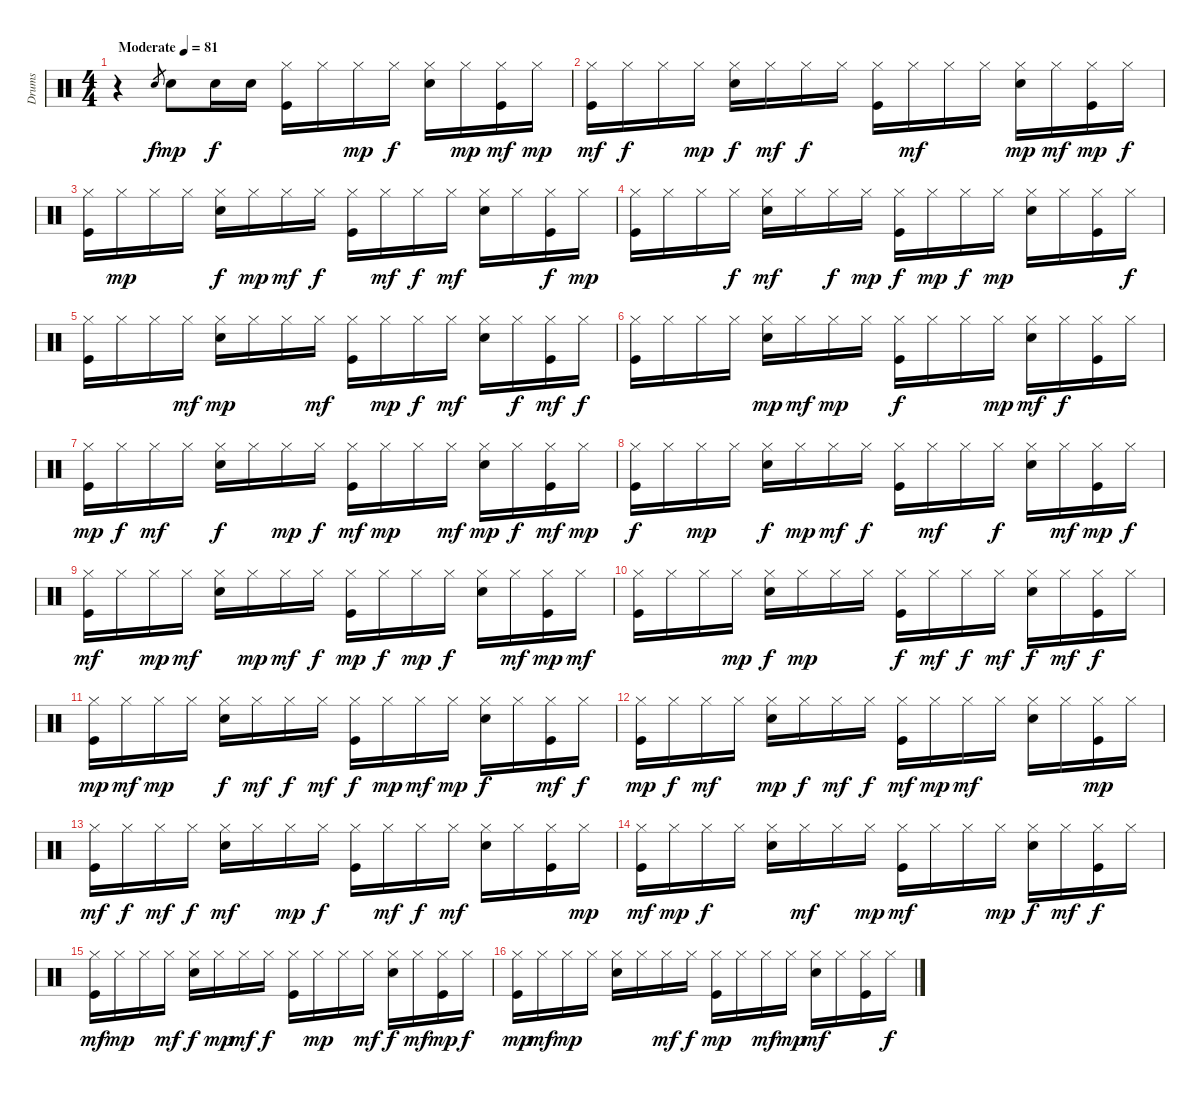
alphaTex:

\track ("Drums" "Drums") {instrument percussion}
\staff {score}
\articulation defaults
\ts (4 4)
\tempo (81 "Moderate")
\clef neutral
\ks c
r.4{dy f} "Electric Snare (hit)".8{gr} "Electric Snare (hit)".8{dy mp} "Electric Snare (hit)".16{dy f} "Electric Snare (hit)".16 ("Kick (hit)" "Hi-Hat (closed)").16 "Hi-Hat (closed)".16 "Hi-Hat (closed)".16{dy mp} "Hi-Hat (closed)".16{dy f} ("Electric Snare (hit)" "Hi-Hat (closed)").16 "Hi-Hat (closed)".16{dy mp} ("Kick (hit)" "Hi-Hat (closed)").16{dy mf} "Hi-Hat (closed)".16{dy mp} |
("Kick (hit)" "Hi-Hat (closed)").16{dy mf} "Hi-Hat (closed)".16{dy f} "Hi-Hat (closed)".16 "Hi-Hat (closed)".16{dy mp} ("Electric Snare (hit)" "Hi-Hat (closed)").16{dy f} "Hi-Hat (closed)".16{dy mf} "Hi-Hat (closed)".16{dy f} "Hi-Hat (closed)".16 ("Kick (hit)" "Hi-Hat (closed)").16 "Hi-Hat (closed)".16{dy mf} "Hi-Hat (closed)".16 "Hi-Hat (closed)".16 ("Electric Snare (hit)" "Hi-Hat (closed)").16{dy mp} "Hi-Hat (closed)".16{dy mf} ("Kick (hit)" "Hi-Hat (closed)").16{dy mp} "Hi-Hat (closed)".16{dy f} |
("Kick (hit)" "Hi-Hat (closed)").16 "Hi-Hat (closed)".16{dy mp} "Hi-Hat (closed)".16 "Hi-Hat (closed)".16 ("Electric Snare (hit)" "Hi-Hat (closed)").16{dy f} "Hi-Hat (closed)".16{dy mp} "Hi-Hat (closed)".16{dy mf} "Hi-Hat (closed)".16{dy f} ("Kick (hit)" "Hi-Hat (closed)").16 "Hi-Hat (closed)".16{dy mf} "Hi-Hat (closed)".16{dy f} "Hi-Hat (closed)".16{dy mf} ("Electric Snare (hit)" "Hi-Hat (closed)").16 "Hi-Hat (closed)".16 ("Kick (hit)" "Hi-Hat (closed)").16{dy f} "Hi-Hat (closed)".16{dy mp} |
("Kick (hit)" "Hi-Hat (closed)").16 "Hi-Hat (closed)".16 "Hi-Hat (closed)".16 "Hi-Hat (closed)".16{dy f} ("Electric Snare (hit)" "Hi-Hat (closed)").16{dy mf} "Hi-Hat (closed)".16 "Hi-Hat (closed)".16{dy f} "Hi-Hat (closed)".16{dy mp} ("Kick (hit)" "Hi-Hat (closed)").16{dy f} "Hi-Hat (closed)".16{dy mp} "Hi-Hat (closed)".16{dy f} "Hi-Hat (closed)".16{dy mp} ("Electric Snare (hit)" "Hi-Hat (closed)").16 "Hi-Hat (closed)".16 ("Kick (hit)" "Hi-Hat (closed)").16 "Hi-Hat (closed)".16{dy f} |
("Kick (hit)" "Hi-Hat (closed)").16 "Hi-Hat (closed)".16 "Hi-Hat (closed)".16 "Hi-Hat (closed)".16{dy mf} ("Electric Snare (hit)" "Hi-Hat (closed)").16{dy mp} "Hi-Hat (closed)".16 "Hi-Hat (closed)".16 "Hi-Hat (closed)".16{dy mf} ("Kick (hit)" "Hi-Hat (closed)").16 "Hi-Hat (closed)".16{dy mp} "Hi-Hat (closed)".16{dy f} "Hi-Hat (closed)".16{dy mf} ("Electric Snare (hit)" "Hi-Hat (closed)").16 "Hi-Hat (closed)".16{dy f} ("Kick (hit)" "Hi-Hat (closed)").16{dy mf} "Hi-Hat (closed)".16{dy f} |
("Kick (hit)" "Hi-Hat (closed)").16 "Hi-Hat (closed)".16 "Hi-Hat (closed)".16 "Hi-Hat (closed)".16 ("Electric Snare (hit)" "Hi-Hat (closed)").16{dy mp} "Hi-Hat (closed)".16{dy mf} "Hi-Hat (closed)".16{dy mp} "Hi-Hat (closed)".16 ("Kick (hit)" "Hi-Hat (closed)").16{dy f} "Hi-Hat (closed)".16 "Hi-Hat (closed)".16 "Hi-Hat (closed)".16{dy mp} ("Electric Snare (hit)" "Hi-Hat (closed)").16{dy mf} "Hi-Hat (closed)".16{dy f} ("Kick (hit)" "Hi-Hat (closed)").16 "Hi-Hat (closed)".16 |
("Kick (hit)" "Hi-Hat (closed)").16{dy mp} "Hi-Hat (closed)".16{dy f} "Hi-Hat (closed)".16{dy mf} "Hi-Hat (closed)".16 ("Electric Snare (hit)" "Hi-Hat (closed)").16{dy f} "Hi-Hat (closed)".16 "Hi-Hat (closed)".16{dy mp} "Hi-Hat (closed)".16{dy f} ("Kick (hit)" "Hi-Hat (closed)").16{dy mf} "Hi-Hat (closed)".16{dy mp} "Hi-Hat (closed)".16 "Hi-Hat (closed)".16{dy mf} ("Electric Snare (hit)" "Hi-Hat (closed)").16{dy mp} "Hi-Hat (closed)".16{dy f} ("Kick (hit)" "Hi-Hat (closed)").16{dy mf} "Hi-Hat (closed)".16{dy mp} |
("Kick (hit)" "Hi-Hat (closed)").16{dy f} "Hi-Hat (closed)".16 "Hi-Hat (closed)".16{dy mp} "Hi-Hat (closed)".16 ("Electric Snare (hit)" "Hi-Hat (closed)").16{dy f} "Hi-Hat (closed)".16{dy mp} "Hi-Hat (closed)".16{dy mf} "Hi-Hat (closed)".16{dy f} ("Kick (hit)" "Hi-Hat (closed)").16 "Hi-Hat (closed)".16{dy mf} "Hi-Hat (closed)".16 "Hi-Hat (closed)".16{dy f} ("Electric Snare (hit)" "Hi-Hat (closed)").16 "Hi-Hat (closed)".16{dy mf} ("Kick (hit)" "Hi-Hat (closed)").16{dy mp} "Hi-Hat (closed)".16{dy f} |
("Kick (hit)" "Hi-Hat (closed)").16{dy mf} "Hi-Hat (closed)".16 "Hi-Hat (closed)".16{dy mp} "Hi-Hat (closed)".16{dy mf} ("Electric Snare (hit)" "Hi-Hat (closed)").16 "Hi-Hat (closed)".16{dy mp} "Hi-Hat (closed)".16{dy mf} "Hi-Hat (closed)".16{dy f} ("Kick (hit)" "Hi-Hat (closed)").16{dy mp} "Hi-Hat (closed)".16{dy f} "Hi-Hat (closed)".16{dy mp} "Hi-Hat (closed)".16{dy f} ("Electric Snare (hit)" "Hi-Hat (closed)").16 "Hi-Hat (closed)".16{dy mf} ("Kick (hit)" "Hi-Hat (closed)").16{dy mp} "Hi-Hat (closed)".16{dy mf} |
("Kick (hit)" "Hi-Hat (closed)").16 "Hi-Hat (closed)".16 "Hi-Hat (closed)".16 "Hi-Hat (closed)".16{dy mp} ("Electric Snare (hit)" "Hi-Hat (closed)").16{dy f} "Hi-Hat (closed)".16{dy mp} "Hi-Hat (closed)".16 "Hi-Hat (closed)".16 ("Kick (hit)" "Hi-Hat (closed)").16{dy f} "Hi-Hat (closed)".16{dy mf} "Hi-Hat (closed)".16{dy f} "Hi-Hat (closed)".16{dy mf} ("Electric Snare (hit)" "Hi-Hat (closed)").16{dy f} "Hi-Hat (closed)".16{dy mf} ("Kick (hit)" "Hi-Hat (closed)").16{dy f} "Hi-Hat (closed)".16 |
("Kick (hit)" "Hi-Hat (closed)").16{dy mp} "Hi-Hat (closed)".16{dy mf} "Hi-Hat (closed)".16{dy mp} "Hi-Hat (closed)".16 ("Electric Snare (hit)" "Hi-Hat (closed)").16{dy f} "Hi-Hat (closed)".16{dy mf} "Hi-Hat (closed)".16{dy f} "Hi-Hat (closed)".16{dy mf} ("Kick (hit)" "Hi-Hat (closed)").16{dy f} "Hi-Hat (closed)".16{dy mp} "Hi-Hat (closed)".16{dy mf} "Hi-Hat (closed)".16{dy mp} ("Electric Snare (hit)" "Hi-Hat (closed)").16{dy f} "Hi-Hat (closed)".16 ("Kick (hit)" "Hi-Hat (closed)").16{dy mf} "Hi-Hat (closed)".16{dy f} |
("Kick (hit)" "Hi-Hat (closed)").16{dy mp} "Hi-Hat (closed)".16{dy f} "Hi-Hat (closed)".16{dy mf} "Hi-Hat (closed)".16 ("Electric Snare (hit)" "Hi-Hat (closed)").16{dy mp} "Hi-Hat (closed)".16{dy f} "Hi-Hat (closed)".16{dy mf} "Hi-Hat (closed)".16{dy f} ("Kick (hit)" "Hi-Hat (closed)").16{dy mf} "Hi-Hat (closed)".16{dy mp} "Hi-Hat (closed)".16{dy mf} "Hi-Hat (closed)".16 ("Electric Snare (hit)" "Hi-Hat (closed)").16 "Hi-Hat (closed)".16 ("Kick (hit)" "Hi-Hat (closed)").16{dy mp} "Hi-Hat (closed)".16 |
("Kick (hit)" "Hi-Hat (closed)").16{dy mf} "Hi-Hat (closed)".16{dy f} "Hi-Hat (closed)".16{dy mf} "Hi-Hat (closed)".16{dy f} ("Electric Snare (hit)" "Hi-Hat (closed)").16{dy mf} "Hi-Hat (closed)".16 "Hi-Hat (closed)".16{dy mp} "Hi-Hat (closed)".16{dy f} ("Kick (hit)" "Hi-Hat (closed)").16 "Hi-Hat (closed)".16{dy mf} "Hi-Hat (closed)".16{dy f} "Hi-Hat (closed)".16{dy mf} ("Electric Snare (hit)" "Hi-Hat (closed)").16 "Hi-Hat (closed)".16 ("Kick (hit)" "Hi-Hat (closed)").16 "Hi-Hat (closed)".16{dy mp} |
("Kick (hit)" "Hi-Hat (closed)").16{dy mf} "Hi-Hat (closed)".16{dy mp} "Hi-Hat (closed)".16{dy f} "Hi-Hat (closed)".16 ("Electric Snare (hit)" "Hi-Hat (closed)").16 "Hi-Hat (closed)".16{dy mf} "Hi-Hat (closed)".16 "Hi-Hat (closed)".16{dy mp} ("Kick (hit)" "Hi-Hat (closed)").16{dy mf} "Hi-Hat (closed)".16 "Hi-Hat (closed)".16 "Hi-Hat (closed)".16{dy mp} ("Electric Snare (hit)" "Hi-Hat (closed)").16{dy f} "Hi-Hat (closed)".16{dy mf} ("Kick (hit)" "Hi-Hat (closed)").16{dy f} "Hi-Hat (closed)".16 |
("Kick (hit)" "Hi-Hat (closed)").16{dy mf} "Hi-Hat (closed)".16{dy mp} "Hi-Hat (closed)".16 "Hi-Hat (closed)".16{dy mf} ("Electric Snare (hit)" "Hi-Hat (closed)").16{dy f} "Hi-Hat (closed)".16{dy mp} "Hi-Hat (closed)".16{dy mf} "Hi-Hat (closed)".16{dy f} ("Kick (hit)" "Hi-Hat (closed)").16 "Hi-Hat (closed)".16{dy mp} "Hi-Hat (closed)".16 "Hi-Hat (closed)".16{dy mf} ("Electric Snare (hit)" "Hi-Hat (closed)").16{dy f} "Hi-Hat (closed)".16{dy mf} ("Kick (hit)" "Hi-Hat (closed)").16{dy mp} "Hi-Hat (closed)".16{dy f} |
("Kick (hit)" "Hi-Hat (closed)").16{dy mp} "Hi-Hat (closed)".16{dy mf} "Hi-Hat (closed)".16{dy mp} "Hi-Hat (closed)".16 ("Electric Snare (hit)" "Hi-Hat (closed)").16 "Hi-Hat (closed)".16 "Hi-Hat (closed)".16{dy mf} "Hi-Hat (closed)".16{dy f} ("Kick (hit)" "Hi-Hat (closed)").16{dy mp} "Hi-Hat (closed)".16 "Hi-Hat (closed)".16{dy mf} "Hi-Hat (closed)".16{dy mp} ("Electric Snare (hit)" "Hi-Hat (closed)").16{dy mf} "Hi-Hat (closed)".16 ("Kick (hit)" "Hi-Hat (closed)").16 "Hi-Hat (closed)".16{dy f}
